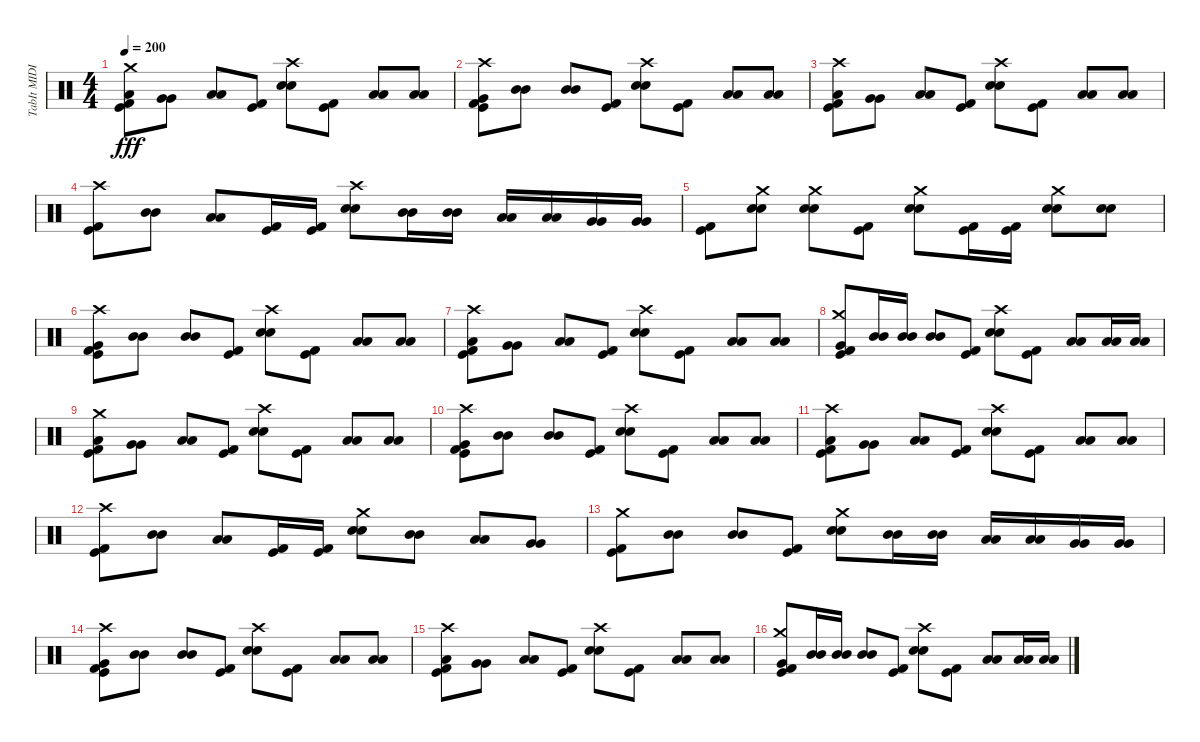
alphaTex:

\track ("TabIt MIDI - Track 4" "TabIt MIDI") {instrument percussion}
\staff {score}
\articulation defaults
\ts (4 4)
\tempo 200
\clef neutral
\ks c
("Kick (hit)" "Kick (hit) 2" "Low Floor Tom (hit)" "Crash medium (hit)").8{dy fff} ("Very Low Tom (hit)" "Very Low Tom (hit)").8 ("Low Floor Tom (hit)" "Low Floor Tom (hit)").8 ("Kick (hit)" "Kick (hit) 2").8 ("Electric Snare (hit)" "Electric Snare (hit)" "Crash high (hit)").8 ("Kick (hit)" "Kick (hit) 2").8 ("Low Tom (hit)" "Low Tom (hit)").8 ("Low Tom (hit)" "Low Tom (hit)").8 |
("Kick (hit)" "Kick (hit) 2" "Very Low Tom (hit)" "Crash high (hit)").8 ("Mid Tom (hit)" "Mid Tom (hit)").8 ("Mid Tom (hit)" "Mid Tom (hit)").8 ("Kick (hit)" "Kick (hit) 2").8 ("Electric Snare (hit)" "Electric Snare (hit)" "Crash high (hit)").8 ("Kick (hit)" "Kick (hit) 2").8 ("Low Tom (hit)" "Low Tom (hit)").8 ("Low Tom (hit)" "Low Tom (hit)").8 |
("Kick (hit)" "Kick (hit) 2" "Low Floor Tom (hit)" "Crash high (hit)").8 ("Very Low Tom (hit)" "Very Low Tom (hit)").8 ("Low Floor Tom (hit)" "Low Floor Tom (hit)").8 ("Kick (hit)" "Kick (hit) 2").8 ("Electric Snare (hit)" "Electric Snare (hit)" "Crash high (hit)").8 ("Kick (hit)" "Kick (hit) 2").8 ("Low Tom (hit)" "Low Tom (hit)").8 ("Low Tom (hit)" "Low Tom (hit)").8 |
("Kick (hit)" "Kick (hit) 2" "Crash high (hit)").8 ("Mid Tom (hit)" "Mid Tom (hit)").8 ("Low Tom (hit)" "Low Tom (hit)").8 ("Kick (hit)" "Kick (hit) 2").16 ("Kick (hit)" "Kick (hit) 2").16 ("Electric Snare (hit)" "Electric Snare (hit)" "Crash high (hit)").8 ("Mid Tom (hit)" "Mid Tom (hit)").16 ("Mid Tom (hit)" "Mid Tom (hit)").16 ("Low Tom (hit)" "Low Tom (hit)").16 ("Low Tom (hit)" "Low Tom (hit)").16 ("Very Low Tom (hit)" "Very Low Tom (hit)").16 ("Very Low Tom (hit)" "Very Low Tom (hit)").16 |
("Kick (hit)" "Kick (hit) 2").8 ("Electric Snare (hit)" "Electric Snare (hit)" "Crash medium (hit)").8 ("Electric Snare (hit)" "Electric Snare (hit)" "Crash medium (hit)").8 ("Kick (hit)" "Kick (hit) 2").8 ("Electric Snare (hit)" "Electric Snare (hit)" "Crash medium (hit)").8 ("Kick (hit)" "Kick (hit) 2").16 ("Kick (hit)" "Kick (hit) 2").16 ("Electric Snare (hit)" "Electric Snare (hit)" "Crash medium (hit)").8 ("Electric Snare (hit)" "Electric Snare (hit)").8 |
("Kick (hit)" "Kick (hit) 2" "Very Low Tom (hit)" "Crash high (hit)").8 ("Mid Tom (hit)" "Mid Tom (hit)").8 ("Mid Tom (hit)" "Mid Tom (hit)").8 ("Kick (hit)" "Kick (hit) 2").8 ("Electric Snare (hit)" "Electric Snare (hit)" "Crash high (hit)").8 ("Kick (hit)" "Kick (hit) 2").8 ("Low Tom (hit)" "Low Tom (hit)").8 ("Low Tom (hit)" "Low Tom (hit)").8 |
("Kick (hit)" "Kick (hit) 2" "Low Floor Tom (hit)" "Crash high (hit)").8 ("Very Low Tom (hit)" "Very Low Tom (hit)").8 ("Low Floor Tom (hit)" "Low Floor Tom (hit)").8 ("Kick (hit)" "Kick (hit) 2").8 ("Electric Snare (hit)" "Electric Snare (hit)" "Crash high (hit)").8 ("Kick (hit)" "Kick (hit) 2").8 ("Low Tom (hit)" "Low Tom (hit)").8 ("Low Tom (hit)" "Low Tom (hit)").8 |
("Kick (hit)" "Kick (hit) 2" "Very Low Tom (hit)" "Crash medium (hit)").8 ("Mid Tom (hit)" "Mid Tom (hit)").16 ("Mid Tom (hit)" "Mid Tom (hit)").16 ("Mid Tom (hit)" "Mid Tom (hit)").8 ("Kick (hit)" "Kick (hit) 2").8 ("Electric Snare (hit)" "Electric Snare (hit)" "Crash high (hit)").8 ("Kick (hit)" "Kick (hit) 2").8 ("Low Tom (hit)" "Low Tom (hit)").8 ("Low Tom (hit)" "Low Tom (hit)").16 ("Low Tom (hit)" "Low Tom (hit)").16 |
("Kick (hit)" "Kick (hit) 2" "Low Floor Tom (hit)" "Crash medium (hit)").8 ("Very Low Tom (hit)" "Very Low Tom (hit)").8 ("Low Floor Tom (hit)" "Low Floor Tom (hit)").8 ("Kick (hit)" "Kick (hit) 2").8 ("Electric Snare (hit)" "Electric Snare (hit)" "Crash high (hit)").8 ("Kick (hit)" "Kick (hit) 2").8 ("Low Tom (hit)" "Low Tom (hit)").8 ("Low Tom (hit)" "Low Tom (hit)").8 |
("Kick (hit)" "Kick (hit) 2" "Very Low Tom (hit)" "Crash high (hit)").8 ("Mid Tom (hit)" "Mid Tom (hit)").8 ("Mid Tom (hit)" "Mid Tom (hit)").8 ("Kick (hit)" "Kick (hit) 2").8 ("Electric Snare (hit)" "Electric Snare (hit)" "Crash high (hit)").8 ("Kick (hit)" "Kick (hit) 2").8 ("Low Tom (hit)" "Low Tom (hit)").8 ("Low Tom (hit)" "Low Tom (hit)").8 |
("Kick (hit)" "Kick (hit) 2" "Low Floor Tom (hit)" "Crash high (hit)").8 ("Very Low Tom (hit)" "Very Low Tom (hit)").8 ("Low Floor Tom (hit)" "Low Floor Tom (hit)").8 ("Kick (hit)" "Kick (hit) 2").8 ("Electric Snare (hit)" "Electric Snare (hit)" "Crash high (hit)").8 ("Kick (hit)" "Kick (hit) 2").8 ("Low Tom (hit)" "Low Tom (hit)").8 ("Low Tom (hit)" "Low Tom (hit)").8 |
("Kick (hit)" "Kick (hit) 2" "Crash high (hit)").8 ("Mid Tom (hit)" "Mid Tom (hit)").8 ("Low Tom (hit)" "Low Tom (hit)").8 ("Kick (hit)" "Kick (hit) 2").16 ("Kick (hit)" "Kick (hit) 2").16 ("Electric Snare (hit)" "Electric Snare (hit)" "Crash medium (hit)").8 ("Mid Tom (hit)" "Mid Tom (hit)").8 ("Low Tom (hit)" "Low Tom (hit)").8 ("Very Low Tom (hit)" "Very Low Tom (hit)").8 |
("Kick (hit)" "Kick (hit) 2" "Crash medium (hit)").8 ("Mid Tom (hit)" "Mid Tom (hit)").8 ("Mid Tom (hit)" "Mid Tom (hit)").8 ("Kick (hit)" "Kick (hit) 2").8 ("Electric Snare (hit)" "Electric Snare (hit)" "Crash medium (hit)").8 ("Mid Tom (hit)" "Mid Tom (hit)").16 ("Mid Tom (hit)" "Mid Tom (hit)").16 ("Low Tom (hit)" "Low Tom (hit)").16 ("Low Tom (hit)" "Low Tom (hit)").16 ("Very Low Tom (hit)" "Very Low Tom (hit)").16 ("Very Low Tom (hit)" "Very Low Tom (hit)").16 |
("Kick (hit)" "Kick (hit) 2" "Very Low Tom (hit)" "Crash high (hit)").8 ("Mid Tom (hit)" "Mid Tom (hit)").8 ("Mid Tom (hit)" "Mid Tom (hit)").8 ("Kick (hit)" "Kick (hit) 2").8 ("Electric Snare (hit)" "Electric Snare (hit)" "Crash high (hit)").8 ("Kick (hit)" "Kick (hit) 2").8 ("Low Tom (hit)" "Low Tom (hit)").8 ("Low Tom (hit)" "Low Tom (hit)").8 |
("Kick (hit)" "Kick (hit) 2" "Low Floor Tom (hit)" "Crash high (hit)").8 ("Very Low Tom (hit)" "Very Low Tom (hit)").8 ("Low Floor Tom (hit)" "Low Floor Tom (hit)").8 ("Kick (hit)" "Kick (hit) 2").8 ("Electric Snare (hit)" "Electric Snare (hit)" "Crash high (hit)").8 ("Kick (hit)" "Kick (hit) 2").8 ("Low Tom (hit)" "Low Tom (hit)").8 ("Low Tom (hit)" "Low Tom (hit)").8 |
("Kick (hit)" "Kick (hit) 2" "Very Low Tom (hit)" "Crash medium (hit)").8 ("Mid Tom (hit)" "Mid Tom (hit)").16 ("Mid Tom (hit)" "Mid Tom (hit)").16 ("Mid Tom (hit)" "Mid Tom (hit)").8 ("Kick (hit)" "Kick (hit) 2").8 ("Electric Snare (hit)" "Electric Snare (hit)" "Crash high (hit)").8 ("Kick (hit)" "Kick (hit) 2").8 ("Low Tom (hit)" "Low Tom (hit)").8 ("Low Tom (hit)" "Low Tom (hit)").16 ("Low Tom (hit)" "Low Tom (hit)").16
